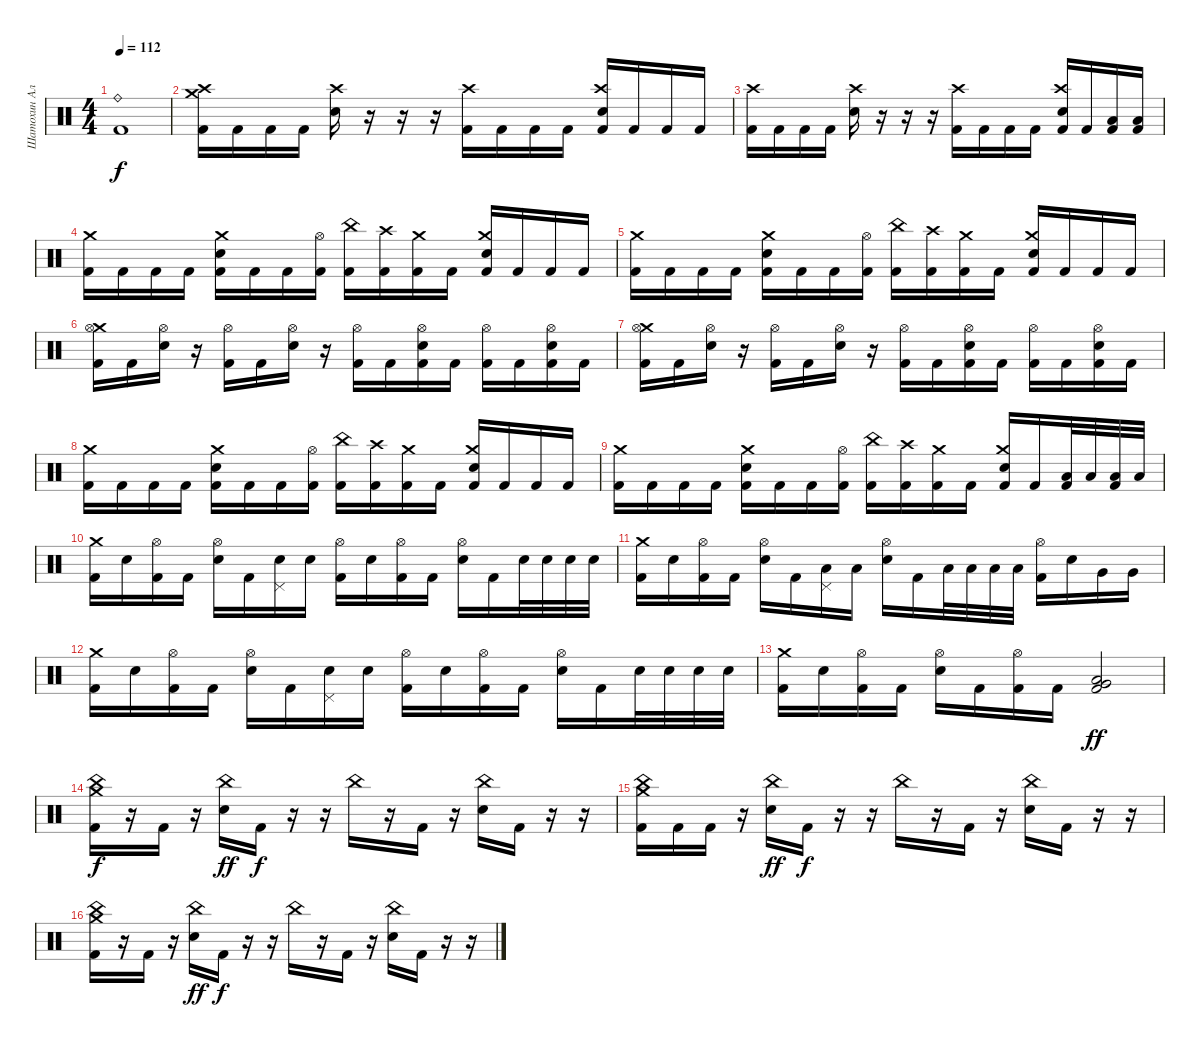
\track ("Шатохин Алексей" "Шатохин Ал") {instrument percussion}
\staff {score}
\articulation defaults
\ts (4 4)
\tempo 112
\clef neutral
\ks c
("Ride (bell)" "Kick (hit) 2").1{dy f} |
("Crash medium (hit)" "Crash high (hit)" "Kick (hit) 2").16 "Kick (hit) 2".16 "Kick (hit) 2".16 "Kick (hit) 2".16 ("Crash high (hit)" "Electric Snare (hit)").16 r.16 r.16 r.16 ("Crash high (hit)" "Kick (hit) 2").16 "Kick (hit) 2".16 "Kick (hit) 2".16 "Kick (hit) 2".16 ("Crash high (hit)" "Electric Snare (hit)" "Kick (hit) 2").16 "Kick (hit) 2".16 "Kick (hit) 2".16 "Kick (hit) 2".16 |
("Crash high (hit)" "Kick (hit) 2").16 "Kick (hit) 2".16 "Kick (hit) 2".16 "Kick (hit) 2".16 ("Crash high (hit)" "Electric Snare (hit)").16 r.16 r.16 r.16 ("Crash high (hit)" "Kick (hit) 2").16 "Kick (hit) 2".16 "Kick (hit) 2".16 "Kick (hit) 2".16 ("Crash high (hit)" "Electric Snare (hit)" "Kick (hit) 2").16 "Kick (hit) 2".16 ("Low Tom (hit)" "Kick (hit) 2").16 ("Low Tom (hit)" "Kick (hit) 2").16 |
("Kick (hit) 2" "Crash medium (hit)").16 "Kick (hit) 2".16 "Kick (hit) 2".16 "Kick (hit) 2".16 ("Kick (hit) 2" "Electric Snare (hit)" "Crash medium (hit)").16 "Kick (hit) 2".16 "Kick (hit) 2".16 ("Kick (hit) 2" "Hi-Hat (open)").16 ("Kick (hit) 2" "China (hit)").16 ("Kick (hit) 2" "Crash high (hit)").16 ("Kick (hit) 2" "Crash medium (hit)").16 "Kick (hit) 2".16 ("Kick (hit) 2" "Electric Snare (hit)" "Crash medium (hit)").16 "Kick (hit) 2".16 "Kick (hit) 2".16 "Kick (hit) 2".16 |
("Kick (hit) 2" "Crash medium (hit)").16 "Kick (hit) 2".16 "Kick (hit) 2".16 "Kick (hit) 2".16 ("Kick (hit) 2" "Electric Snare (hit)" "Crash medium (hit)").16 "Kick (hit) 2".16 "Kick (hit) 2".16 ("Kick (hit) 2" "Hi-Hat (open)").16 ("Kick (hit) 2" "China (hit)").16 ("Kick (hit) 2" "Crash high (hit)").16 ("Kick (hit) 2" "Crash medium (hit)").16 "Kick (hit) 2".16 ("Kick (hit) 2" "Electric Snare (hit)" "Crash medium (hit)").16 "Kick (hit) 2".16 "Kick (hit) 2".16 "Kick (hit) 2".16 |
("Crash medium (hit)" "Hi-Hat (open)" "Kick (hit) 2").16 "Kick (hit) 2".16 ("Hi-Hat (open)" "Electric Snare (hit)").16 r.16 ("Hi-Hat (open)" "Kick (hit) 2").16 "Kick (hit) 2".16 ("Hi-Hat (open)" "Electric Snare (hit)").16 r.16 ("Hi-Hat (open)" "Kick (hit) 2").16 "Kick (hit) 2".16 ("Hi-Hat (open)" "Electric Snare (hit)" "Kick (hit) 2").16 "Kick (hit) 2".16 ("Hi-Hat (open)" "Kick (hit) 2").16 "Kick (hit) 2".16 ("Hi-Hat (open)" "Electric Snare (hit)" "Kick (hit) 2").16 "Kick (hit) 2".16 |
("Crash medium (hit)" "Hi-Hat (open)" "Kick (hit) 2").16 "Kick (hit) 2".16 ("Hi-Hat (open)" "Electric Snare (hit)").16 r.16 ("Hi-Hat (open)" "Kick (hit) 2").16 "Kick (hit) 2".16 ("Hi-Hat (open)" "Electric Snare (hit)").16 r.16 ("Hi-Hat (open)" "Kick (hit) 2").16 "Kick (hit) 2".16 ("Hi-Hat (open)" "Electric Snare (hit)" "Kick (hit) 2").16 "Kick (hit) 2".16 ("Hi-Hat (open)" "Kick (hit) 2").16 "Kick (hit) 2".16 ("Hi-Hat (open)" "Electric Snare (hit)" "Kick (hit) 2").16 "Kick (hit) 2".16 |
("Kick (hit) 2" "Crash medium (hit)").16 "Kick (hit) 2".16 "Kick (hit) 2".16 "Kick (hit) 2".16 ("Kick (hit) 2" "Electric Snare (hit)" "Crash medium (hit)").16 "Kick (hit) 2".16 "Kick (hit) 2".16 ("Kick (hit) 2" "Hi-Hat (open)").16 ("Kick (hit) 2" "China (hit)").16 ("Kick (hit) 2" "Crash high (hit)").16 ("Kick (hit) 2" "Crash medium (hit)").16 "Kick (hit) 2".16 ("Kick (hit) 2" "Electric Snare (hit)" "Crash medium (hit)").16 "Kick (hit) 2".16 "Kick (hit) 2".16 "Kick (hit) 2".16 |
("Kick (hit) 2" "Crash medium (hit)").16 "Kick (hit) 2".16 "Kick (hit) 2".16 "Kick (hit) 2".16 ("Kick (hit) 2" "Electric Snare (hit)" "Crash medium (hit)").16 "Kick (hit) 2".16 "Kick (hit) 2".16 ("Kick (hit) 2" "Hi-Hat (open)").16 ("Kick (hit) 2" "China (hit)").16 ("Kick (hit) 2" "Crash high (hit)").16 ("Kick (hit) 2" "Crash medium (hit)").16 "Kick (hit) 2".16 ("Kick (hit) 2" "Electric Snare (hit)" "Crash medium (hit)").16 "Kick (hit) 2".16 ("Kick (hit) 2" "Low Tom (hit)").32 "Low Tom (hit)".32 ("Kick (hit) 2" "Low Tom (hit)").32 "Low Tom (hit)".32 |
("Crash medium (hit)" "Kick (hit) 2").16 "Electric Snare (hit)".16 ("Hi-Hat (open)" "Kick (hit) 2").16 "Kick (hit) 2".16 ("Hi-Hat (open)" "Electric Snare (hit)").16 "Kick (hit) 2".16 ("Pedal Hi-Hat (hit)" "Electric Snare (hit)").16 "Electric Snare (hit)".16 ("Hi-Hat (open)" "Kick (hit) 2").16 "Electric Snare (hit)".16 ("Hi-Hat (open)" "Kick (hit) 2").16 "Kick (hit) 2".16 ("Hi-Hat (open)" "Electric Snare (hit)").16 "Kick (hit) 2".16 "Electric Snare (hit)".32 "Electric Snare (hit)".32 "Electric Snare (hit)".32 "Electric Snare (hit)".32 |
("Crash medium (hit)" "Kick (hit) 2").16 "Electric Snare (hit)".16 ("Hi-Hat (open)" "Kick (hit) 2").16 "Kick (hit) 2".16 ("Hi-Hat (open)" "Electric Snare (hit)").16 "Kick (hit) 2".16 ("Pedal Hi-Hat (hit)" "Low Tom (hit)").16 "Low Tom (hit)".16 ("Hi-Hat (open)" "Electric Snare (hit)").16 "Kick (hit) 2".16 "Low Tom (hit)".32 "Low Tom (hit)".32 "Low Tom (hit)".32 "Low Tom (hit)".32 ("Hi-Hat (open)" "Kick (hit) 2").16 "Electric Snare (hit)".16 "Very Low Tom (hit)".16 "Very Low Tom (hit)".16 |
("Crash medium (hit)" "Kick (hit) 2").16 "Electric Snare (hit)".16 ("Hi-Hat (open)" "Kick (hit) 2").16 "Kick (hit) 2".16 ("Hi-Hat (open)" "Electric Snare (hit)").16 "Kick (hit) 2".16 ("Pedal Hi-Hat (hit)" "Electric Snare (hit)").16 "Electric Snare (hit)".16 ("Hi-Hat (open)" "Kick (hit) 2").16 "Electric Snare (hit)".16 ("Hi-Hat (open)" "Kick (hit) 2").16 "Kick (hit) 2".16 ("Hi-Hat (open)" "Electric Snare (hit)").16 "Kick (hit) 2".16 "Electric Snare (hit)".32 "Electric Snare (hit)".32 "Electric Snare (hit)".32 "Electric Snare (hit)".32 |
("Crash medium (hit)" "Kick (hit) 2").16 "Electric Snare (hit)".16 ("Hi-Hat (open)" "Kick (hit) 2").16 "Kick (hit) 2".16 ("Hi-Hat (open)" "Electric Snare (hit)").16 "Kick (hit) 2".16 ("Hi-Hat (open)" "Kick (hit) 2").16 "Kick (hit) 2".16 ("Very Low Tom (hit)" "Low Floor Tom (hit)" "Kick (hit) 2").2{dy ff} |
("Kick (hit) 2" "Crash medium (hit)" "China (hit)").16{dy f} r.16 "Kick (hit) 2".16 r.16 ("Electric Snare (hit)" "China (hit)").16{dy ff} "Kick (hit) 2".16{dy f} r.16 r.16 "China (hit)".16 r.16 "Kick (hit) 2".16 r.16 ("Electric Snare (hit)" "China (hit)").16 "Kick (hit) 2".16 r.16 r.16 |
("Kick (hit) 2" "Crash medium (hit)" "China (hit)").16 "Kick (hit) 2".16 "Kick (hit) 2".16 r.16 ("Electric Snare (hit)" "China (hit)").16{dy ff} "Kick (hit) 2".16{dy f} r.16 r.16 "China (hit)".16 r.16 "Kick (hit) 2".16 r.16 ("Electric Snare (hit)" "China (hit)").16 "Kick (hit) 2".16 r.16 r.16 |
("Kick (hit) 2" "Crash medium (hit)" "China (hit)").16 r.16 "Kick (hit) 2".16 r.16 ("Electric Snare (hit)" "China (hit)").16{dy ff} "Kick (hit) 2".16{dy f} r.16 r.16 "China (hit)".16 r.16 "Kick (hit) 2".16 r.16 ("Electric Snare (hit)" "China (hit)").16 "Kick (hit) 2".16 r.16 r.16
